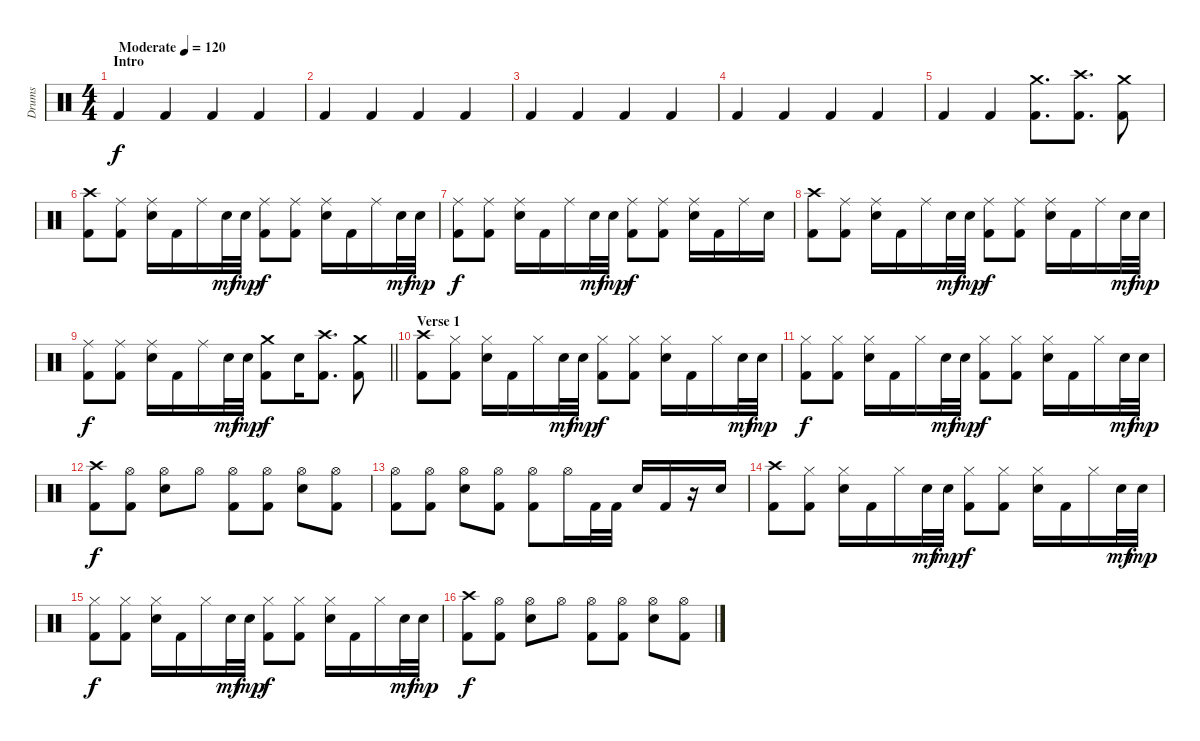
\track ("Drums" "Drums") {instrument percussion}
\staff {score}
\articulation defaults
\ts (4 4)
\section ("" "Intro")
\tempo (120 "Moderate")
\clef neutral
\ks c "Kick (hit) 2".4{dy f} "Kick (hit) 2".4 "Kick (hit) 2".4 "Kick (hit) 2".4
|
"Kick (hit) 2".4 "Kick (hit) 2".4 "Kick (hit) 2".4 "Kick (hit) 2".4 |
"Kick (hit) 2".4 "Kick (hit) 2".4 "Kick (hit) 2".4 "Kick (hit) 2".4 |
"Kick (hit) 2".4 "Kick (hit) 2".4 "Kick (hit) 2".4 "Kick (hit) 2".4 |
"Kick (hit) 2".4 "Kick (hit) 2".4 ("Crash medium (hit)" "Kick (hit) 2").8{d} ("Crash high (hit)" "Kick (hit) 2").8{d} ("Crash medium (hit)" "Kick (hit) 2").8 |
("Crash high (hit)" "Kick (hit) 2").8 ("Ride (middle)" "Kick (hit) 2").8 ("Ride (middle)" "Snare (hit) 2").16 "Kick (hit) 2".16 "Ride (middle)".16 "Snare (hit) 2".32{dy mf} "Snare (hit) 2".32{dy mp} ("Ride (middle)" "Kick (hit) 2").8{dy f} ("Ride (middle)" "Kick (hit) 2").8 ("Ride (middle)" "Snare (hit) 2").16 "Kick (hit) 2".16 "Ride (middle)".16 "Snare (hit) 2".32{dy mf} "Snare (hit) 2".32{dy mp} |
("Ride (middle)" "Kick (hit) 2").8{dy f} ("Ride (middle)" "Kick (hit) 2").8 ("Ride (middle)" "Snare (hit) 2").16 "Kick (hit) 2".16 "Ride (middle)".16 "Snare (hit) 2".32{dy mf} "Snare (hit) 2".32{dy mp} ("Ride (middle)" "Kick (hit) 2").8{dy f} ("Ride (middle)" "Kick (hit) 2").8 ("Ride (middle)" "Snare (hit) 2").16 "Kick (hit) 2".16 "Ride (middle)".16 "Snare (hit) 2".16 |
("Crash high (hit)" "Kick (hit) 2").8 ("Ride (middle)" "Kick (hit) 2").8 ("Ride (middle)" "Snare (hit) 2").16 "Kick (hit) 2".16 "Ride (middle)".16 "Snare (hit) 2".32{dy mf} "Snare (hit) 2".32{dy mp} ("Ride (middle)" "Kick (hit) 2").8{dy f} ("Ride (middle)" "Kick (hit) 2").8 ("Ride (middle)" "Snare (hit) 2").16 "Kick (hit) 2".16 "Ride (middle)".16 "Snare (hit) 2".32{dy mf} "Snare (hit) 2".32{dy mp} |
\barLineRight lightlight
("Ride (middle)" "Kick (hit) 2").8{dy f} ("Ride (middle)" "Kick (hit) 2").8 ("Ride (middle)" "Snare (hit) 2").16 "Kick (hit) 2".16 "Ride (middle)".16 "Snare (hit) 2".32{dy mf} "Snare (hit) 2".32{dy mp} ("Crash medium (hit)" "Kick (hit) 2").8{dy f} "Snare (hit) 2".16 ("Crash high (hit)" "Kick (hit) 2").8{d} ("Crash medium (hit)" "Kick (hit) 2").8 |
\section ("" "Verse 1")
("Crash high (hit)" "Kick (hit) 2").8 ("Hi-Hat (closed)" "Kick (hit) 2").8 ("Hi-Hat (closed)" "Snare (hit) 2").16 "Kick (hit) 2".16 "Hi-Hat (closed)".16 "Snare (hit) 2".32{dy mf} "Snare (hit) 2".32{dy mp} ("Hi-Hat (closed)" "Kick (hit) 2").8{dy f} ("Hi-Hat (closed)" "Kick (hit) 2").8 ("Hi-Hat (closed)" "Snare (hit) 2").16 "Kick (hit) 2".16 "Hi-Hat (closed)".16 "Snare (hit) 2".32{dy mf} "Snare (hit) 2".32{dy mp} |
("Hi-Hat (closed)" "Kick (hit) 2").8{dy f} ("Hi-Hat (closed)" "Kick (hit) 2").8 ("Hi-Hat (closed)" "Snare (hit) 2").16 "Kick (hit) 2".16 "Hi-Hat (closed)".16 "Snare (hit) 2".32{dy mf} "Snare (hit) 2".32{dy mp} ("Hi-Hat (closed)" "Kick (hit) 2").8{dy f} ("Hi-Hat (closed)" "Kick (hit) 2").8 ("Hi-Hat (closed)" "Snare (hit) 2").16 "Kick (hit) 2".16 "Hi-Hat (closed)".16 "Snare (hit) 2".32{dy mf} "Snare (hit) 2".32{dy mp} |
("Crash high (hit)" "Kick (hit) 2").8{dy f} ("Hi-Hat (open)" "Kick (hit) 2").8 ("Hi-Hat (open)" "Snare (hit) 2").8 "Hi-Hat (open)".8 ("Hi-Hat (open)" "Kick (hit) 2").8 ("Hi-Hat (open)" "Kick (hit) 2").8 ("Hi-Hat (open)" "Snare (hit) 2").8 ("Hi-Hat (open)" "Kick (hit) 2").8 |
("Hi-Hat (open)" "Kick (hit) 2").8 ("Hi-Hat (open)" "Kick (hit) 2").8 ("Hi-Hat (open)" "Snare (hit) 2").8 ("Hi-Hat (open)" "Kick (hit) 2").8 ("Hi-Hat (open)" "Kick (hit) 2").8 "Hi-Hat (open)".16 "Kick (hit) 2".32 "Kick (hit) 2".32 "Snare (hit) 2".16 "Kick (hit) 2".16 r.16 "Snare (hit) 2".16 |
("Crash high (hit)" "Kick (hit) 2").8 ("Hi-Hat (closed)" "Kick (hit) 2").8 ("Hi-Hat (closed)" "Snare (hit) 2").16 "Kick (hit) 2".16 "Hi-Hat (closed)".16 "Snare (hit) 2".32{dy mf} "Snare (hit) 2".32{dy mp} ("Hi-Hat (closed)" "Kick (hit) 2").8{dy f} ("Hi-Hat (closed)" "Kick (hit) 2").8 ("Hi-Hat (closed)" "Snare (hit) 2").16 "Kick (hit) 2".16 "Hi-Hat (closed)".16 "Snare (hit) 2".32{dy mf} "Snare (hit) 2".32{dy mp} |
("Hi-Hat (closed)" "Kick (hit) 2").8{dy f} ("Hi-Hat (closed)" "Kick (hit) 2").8 ("Hi-Hat (closed)" "Snare (hit) 2").16 "Kick (hit) 2".16 "Hi-Hat (closed)".16 "Snare (hit) 2".32{dy mf} "Snare (hit) 2".32{dy mp} ("Hi-Hat (closed)" "Kick (hit) 2").8{dy f} ("Hi-Hat (closed)" "Kick (hit) 2").8 ("Hi-Hat (closed)" "Snare (hit) 2").16 "Kick (hit) 2".16 "Hi-Hat (closed)".16 "Snare (hit) 2".32{dy mf} "Snare (hit) 2".32{dy mp} |
("Crash high (hit)" "Kick (hit) 2").8{dy f} ("Hi-Hat (open)" "Kick (hit) 2").8 ("Hi-Hat (open)" "Snare (hit) 2").8 "Hi-Hat (open)".8 ("Hi-Hat (open)" "Kick (hit) 2").8 ("Hi-Hat (open)" "Kick (hit) 2").8 ("Hi-Hat (open)" "Snare (hit) 2").8 ("Hi-Hat (open)" "Kick (hit) 2").8
